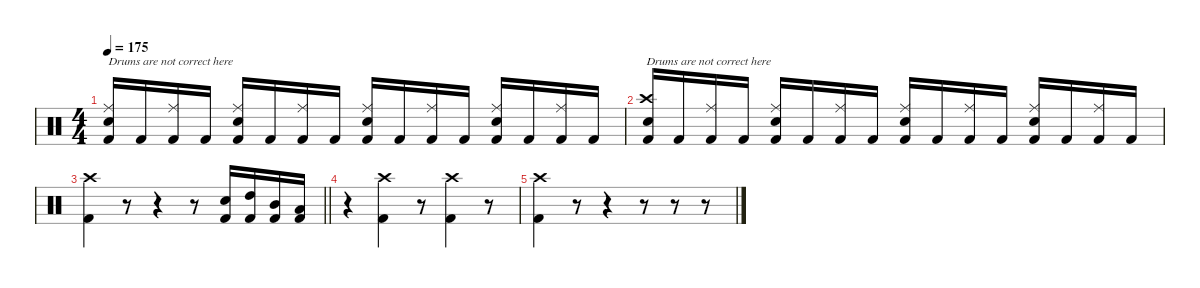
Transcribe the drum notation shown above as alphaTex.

\defaultSystemsLayout 4
\hideDynamics
\bracketExtendMode nobrackets
\singleTrackTrackNamePolicy hidden
\multiTrackTrackNamePolicy hidden
\firstSystemTrackNameMode fullname
\firstSystemTrackNameOrientation horizontal
\otherSystemsTrackNameOrientation horizontal
\track ("Fredrik Andersson" "drm.") {instrument percussion}
\staff {score}
\articulation defaults
\ts (4 4)
\tempo 175
\clef neutral
\ks c
("Ride (middle)" "Snare (hit) 2" "Kick (hit) 2").16{txt "Drums are not correct here" dy f beam Up} "Kick (hit) 2".16{beam Up} ("Ride (middle)" "Kick (hit) 2").16{beam Up} "Kick (hit) 2".16{beam Up} ("Ride (middle)" "Snare (hit) 2" "Kick (hit) 2").16{beam Up} "Kick (hit) 2".16{beam Up} ("Ride (middle)" "Kick (hit) 2").16{beam Up} "Kick (hit) 2".16{beam Up} ("Ride (middle)" "Snare (hit) 2" "Kick (hit) 2").16{beam Up} "Kick (hit) 2".16{beam Up} ("Ride (middle)" "Kick (hit) 2").16{beam Up} "Kick (hit) 2".16{beam Up} ("Ride (middle)" "Snare (hit) 2" "Kick (hit) 2").16{beam Up} "Kick (hit) 2".16{beam Up} ("Ride (middle)" "Kick (hit) 2").16{beam Up} "Kick (hit) 2".16{beam Up} |
("Crash high (hit)" "Snare (hit) 2" "Kick (hit) 2").16{txt "Drums are not correct here" beam Up} "Kick (hit) 2".16{beam Up} ("Ride (middle)" "Kick (hit) 2").16{beam Up} "Kick (hit) 2".16{beam Up} ("Ride (middle)" "Snare (hit) 2" "Kick (hit) 2").16{beam Up} "Kick (hit) 2".16{beam Up} ("Ride (middle)" "Kick (hit) 2").16{beam Up} "Kick (hit) 2".16{beam Up} ("Ride (middle)" "Snare (hit) 2" "Kick (hit) 2").16{beam Up} "Kick (hit) 2".16{beam Up} ("Ride (middle)" "Kick (hit) 2").16{beam Up} "Kick (hit) 2".16{beam Up} ("Ride (middle)" "Snare (hit) 2" "Kick (hit) 2").16{beam Up} "Kick (hit) 2".16{beam Up} ("Ride (middle)" "Kick (hit) 2").16{beam Up} "Kick (hit) 2".16{beam Up} |
\barLineRight lightlight
("Crash high (hit)" "Kick (hit) 2").4{beam Down} r.8{beam Down} r.4{beam Down} r.8{beam Down} ("Snare (hit) 2" "Kick (hit) 2").16{beam Up} ("High Tom (hit)" "Kick (hit) 2").16{beam Up} ("Mid Tom (hit)" "Kick (hit) 2").16{beam Up} ("Low Tom (hit)" "Kick (hit) 2").16{beam Up} |
r.4{beam Down} ("Crash high (hit)" "Kick (hit) 2").4{beam Down} r.8{beam Down} ("Crash high (hit)" "Kick (hit) 2").4{beam Down} r.8{beam Down} |
("Crash high (hit)" "Kick (hit) 2").4{beam Down} r.8{beam Down} r.4{beam Down} r.8{beam Down} r.8{beam Down} r.8{beam Down}
